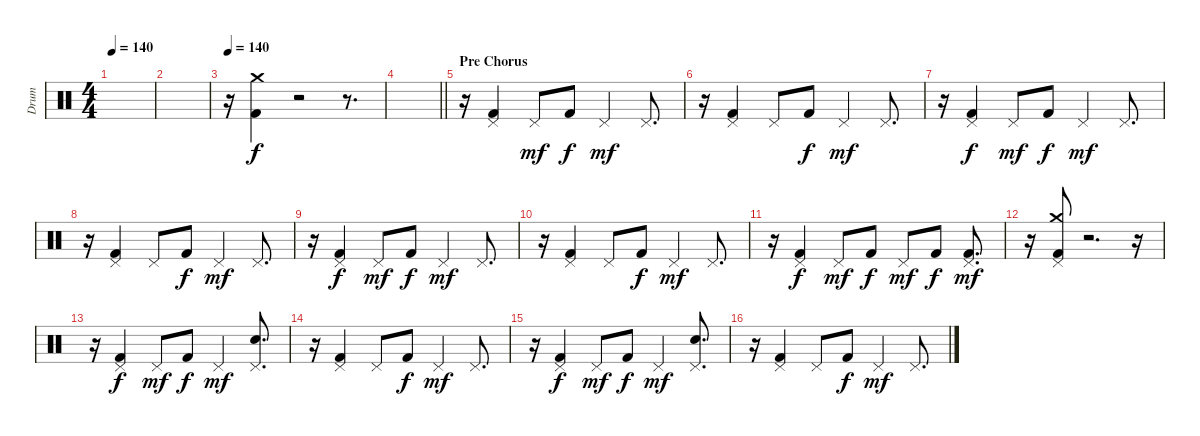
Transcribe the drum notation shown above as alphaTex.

\track ("Drum" "Drum") {instrument percussion}
\staff {score}
\articulation defaults
\ts (4 4)
\tempo 140
\clef neutral
\ks c
|
|
\tempo 140
r.16 ("Kick (hit) 2" "Crash medium (hit)").4 r.2 r.8{d} |
\barLineRight lightlight
|
\section ("" "Pre Chorus")
r.16 ("Pedal Hi-Hat (hit)" "Kick (hit) 2").4 "Pedal Hi-Hat (hit)".8{dy mf} "Kick (hit) 2".8{dy f} "Pedal Hi-Hat (hit)".4{dy mf} "Pedal Hi-Hat (hit)".8{d} |
r.16 ("Pedal Hi-Hat (hit)" "Kick (hit) 2").4 "Pedal Hi-Hat (hit)".8 "Kick (hit) 2".8{dy f} "Pedal Hi-Hat (hit)".4{dy mf} "Pedal Hi-Hat (hit)".8{d} |
r.16 ("Pedal Hi-Hat (hit)" "Kick (hit) 2").4{dy f} "Pedal Hi-Hat (hit)".8{dy mf} "Kick (hit) 2".8{dy f} "Pedal Hi-Hat (hit)".4{dy mf} "Pedal Hi-Hat (hit)".8{d} |
r.16 ("Pedal Hi-Hat (hit)" "Kick (hit) 2").4 "Pedal Hi-Hat (hit)".8 "Kick (hit) 2".8{dy f} "Pedal Hi-Hat (hit)".4{dy mf} "Pedal Hi-Hat (hit)".8{d} |
r.16 ("Pedal Hi-Hat (hit)" "Kick (hit) 2").4{dy f} "Pedal Hi-Hat (hit)".8{dy mf} "Kick (hit) 2".8{dy f} "Pedal Hi-Hat (hit)".4{dy mf} "Pedal Hi-Hat (hit)".8{d} |
r.16 ("Pedal Hi-Hat (hit)" "Kick (hit) 2").4 "Pedal Hi-Hat (hit)".8 "Kick (hit) 2".8{dy f} "Pedal Hi-Hat (hit)".4{dy mf} "Pedal Hi-Hat (hit)".8{d} |
r.16 ("Pedal Hi-Hat (hit)" "Kick (hit) 2").4{dy f} "Pedal Hi-Hat (hit)".8{dy mf} "Kick (hit) 2".8{dy f} "Pedal Hi-Hat (hit)".8{dy mf} "Kick (hit) 2".8{dy f} ("Pedal Hi-Hat (hit)" "Kick (hit) 2").8{d dy mf} |
r.16 ("Pedal Hi-Hat (hit)" "Kick (hit) 2" "Crash medium (hit)").8 r.2{d} r.16 |
r.16 ("Pedal Hi-Hat (hit)" "Kick (hit) 2").4{dy f} "Pedal Hi-Hat (hit)".8{dy mf} "Kick (hit) 2".8{dy f} "Pedal Hi-Hat (hit)".4{dy mf} ("Pedal Hi-Hat (hit)" "Electric Snare (hit)").8{d} |
r.16 ("Kick (hit) 2" "Pedal Hi-Hat (hit)").4 "Pedal Hi-Hat (hit)".8 "Kick (hit) 2".8{dy f} "Pedal Hi-Hat (hit)".4{dy mf} "Pedal Hi-Hat (hit)".8{d} |
r.16 ("Pedal Hi-Hat (hit)" "Kick (hit) 2").4{dy f} "Pedal Hi-Hat (hit)".8{dy mf} "Kick (hit) 2".8{dy f} "Pedal Hi-Hat (hit)".4{dy mf} ("Pedal Hi-Hat (hit)" "Electric Snare (hit)").8{d} |
r.16 ("Kick (hit) 2" "Pedal Hi-Hat (hit)").4 "Pedal Hi-Hat (hit)".8 "Kick (hit) 2".8{dy f} "Pedal Hi-Hat (hit)".4{dy mf} "Pedal Hi-Hat (hit)".8{d}
